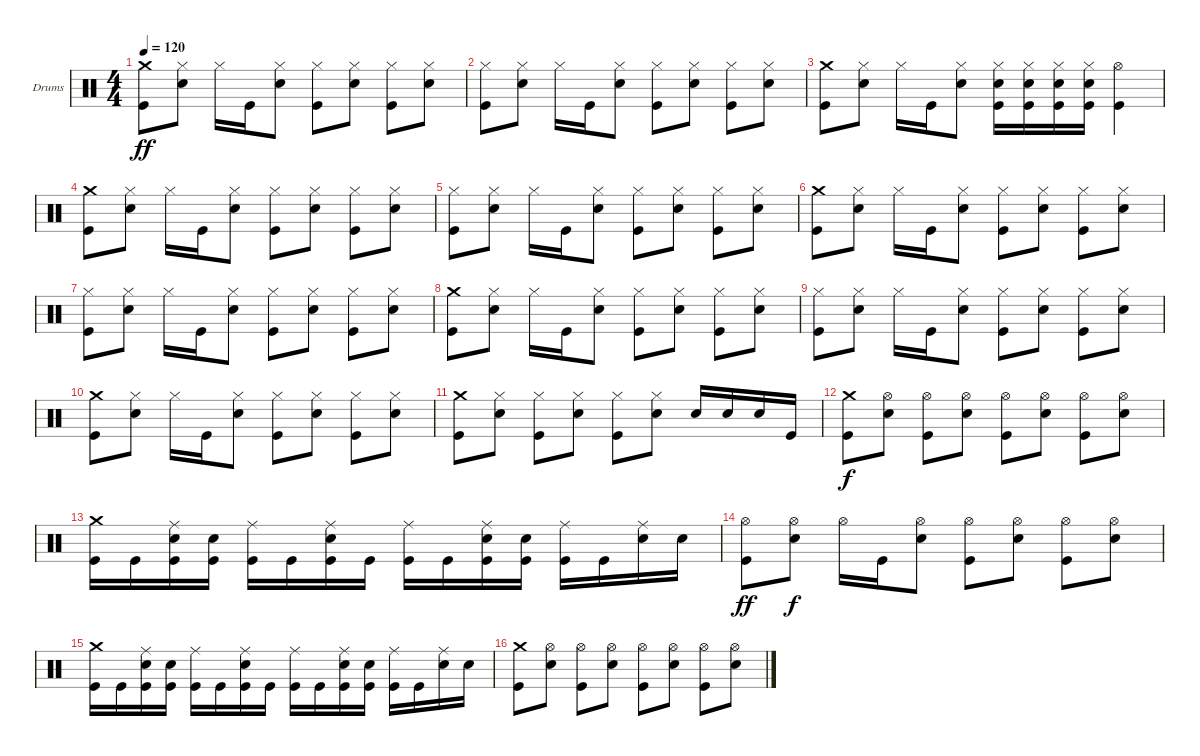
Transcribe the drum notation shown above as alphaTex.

\bracketExtendMode groupsimilarinstruments
\firstSystemTrackNameOrientation horizontal
\otherSystemsTrackNameOrientation horizontal
\track ("Drumkit" "Drums") {instrument percussion}
\staff {score}
\articulation defaults
\ts (4 4)
\tempo 120
\clef neutral
\ks c
("Kick (hit)" "Crash medium (hit)").8{dy ff} ("Snare (hit) 2" "Hi-Hat (closed)").8 "Hi-Hat (closed)".16 "Kick (hit)".16 ("Snare (hit) 2" "Hi-Hat (closed)").8 ("Kick (hit)" "Hi-Hat (closed)").8 ("Snare (hit) 2" "Hi-Hat (closed)").8 ("Kick (hit)" "Hi-Hat (closed)").8 ("Snare (hit) 2" "Hi-Hat (closed)").8 |
("Kick (hit)" "Hi-Hat (closed)").8 ("Snare (hit) 2" "Hi-Hat (closed)").8 "Hi-Hat (closed)".16 "Kick (hit)".16 ("Snare (hit) 2" "Hi-Hat (closed)").8 ("Kick (hit)" "Hi-Hat (closed)").8 ("Snare (hit) 2" "Hi-Hat (closed)").8 ("Kick (hit)" "Hi-Hat (closed)").8 ("Snare (hit) 2" "Hi-Hat (closed)").8 |
("Kick (hit)" "Crash medium (hit)").8 ("Snare (hit) 2" "Hi-Hat (closed)").8 "Hi-Hat (closed)".16 "Kick (hit)".16 ("Snare (hit) 2" "Hi-Hat (closed)").8 ("Kick (hit)" "Snare (hit) 2" "Hi-Hat (closed)").16 ("Kick (hit)" "Snare (hit) 2" "Hi-Hat (closed)").16 ("Kick (hit)" "Snare (hit) 2" "Hi-Hat (closed)").16 ("Kick (hit)" "Snare (hit) 2" "Hi-Hat (closed)").16 ("Kick (hit)" "Hi-Hat (open)").4 |
("Kick (hit)" "Crash medium (hit)").8 ("Snare (hit) 2" "Hi-Hat (closed)").8 "Hi-Hat (closed)".16 "Kick (hit)".16 ("Snare (hit) 2" "Hi-Hat (closed)").8 ("Kick (hit)" "Hi-Hat (closed)").8 ("Snare (hit) 2" "Hi-Hat (closed)").8 ("Kick (hit)" "Hi-Hat (closed)").8 ("Snare (hit) 2" "Hi-Hat (closed)").8 |
("Kick (hit)" "Hi-Hat (closed)").8 ("Snare (hit) 2" "Hi-Hat (closed)").8 "Hi-Hat (closed)".16 "Kick (hit)".16 ("Snare (hit) 2" "Hi-Hat (closed)").8 ("Kick (hit)" "Hi-Hat (closed)").8 ("Snare (hit) 2" "Hi-Hat (closed)").8 ("Kick (hit)" "Hi-Hat (closed)").8 ("Snare (hit) 2" "Hi-Hat (closed)").8 |
("Kick (hit)" "Crash medium (hit)").8 ("Snare (hit) 2" "Hi-Hat (closed)").8 "Hi-Hat (closed)".16 "Kick (hit)".16 ("Snare (hit) 2" "Hi-Hat (closed)").8 ("Kick (hit)" "Hi-Hat (closed)").8 ("Snare (hit) 2" "Hi-Hat (closed)").8 ("Kick (hit)" "Hi-Hat (closed)").8 ("Snare (hit) 2" "Hi-Hat (closed)").8 |
("Kick (hit)" "Hi-Hat (closed)").8 ("Snare (hit) 2" "Hi-Hat (closed)").8 "Hi-Hat (closed)".16 "Kick (hit)".16 ("Snare (hit) 2" "Hi-Hat (closed)").8 ("Kick (hit)" "Hi-Hat (closed)").8 ("Snare (hit) 2" "Hi-Hat (closed)").8 ("Kick (hit)" "Hi-Hat (closed)").8 ("Snare (hit) 2" "Hi-Hat (closed)").8 |
("Kick (hit)" "Crash medium (hit)").8 ("Snare (hit) 2" "Hi-Hat (closed)").8 "Hi-Hat (closed)".16 "Kick (hit)".16 ("Snare (hit) 2" "Hi-Hat (closed)").8 ("Kick (hit)" "Hi-Hat (closed)").8 ("Snare (hit) 2" "Hi-Hat (closed)").8 ("Kick (hit)" "Hi-Hat (closed)").8 ("Snare (hit) 2" "Hi-Hat (closed)").8 |
("Kick (hit)" "Hi-Hat (closed)").8 ("Snare (hit) 2" "Hi-Hat (closed)").8 "Hi-Hat (closed)".16 "Kick (hit)".16 ("Snare (hit) 2" "Hi-Hat (closed)").8 ("Kick (hit)" "Hi-Hat (closed)").8 ("Snare (hit) 2" "Hi-Hat (closed)").8 ("Kick (hit)" "Hi-Hat (closed)").8 ("Snare (hit) 2" "Hi-Hat (closed)").8 |
("Kick (hit)" "Crash medium (hit)").8 ("Snare (hit) 2" "Hi-Hat (closed)").8 "Hi-Hat (closed)".16 "Kick (hit)".16 ("Snare (hit) 2" "Hi-Hat (closed)").8 ("Kick (hit)" "Hi-Hat (closed)").8 ("Snare (hit) 2" "Hi-Hat (closed)").8 ("Kick (hit)" "Hi-Hat (closed)").8 ("Snare (hit) 2" "Hi-Hat (closed)").8 |
("Kick (hit)" "Crash medium (hit)").8 ("Snare (hit) 2" "Hi-Hat (closed)").8 ("Kick (hit)" "Hi-Hat (closed)").8 ("Snare (hit) 2" "Hi-Hat (closed)").8 ("Kick (hit)" "Hi-Hat (closed)").8 ("Snare (hit) 2" "Hi-Hat (closed)").8 "Snare (hit) 2".16 "Snare (hit) 2".16 "Snare (hit) 2".16 "Kick (hit)".16 |
("Kick (hit)" "Crash medium (hit)").8{dy f} ("Snare (hit) 2" "Hi-Hat (open)").8 ("Kick (hit)" "Hi-Hat (open)").8 ("Snare (hit) 2" "Hi-Hat (open)").8 ("Kick (hit)" "Hi-Hat (open)").8 ("Snare (hit) 2" "Hi-Hat (open)").8 ("Kick (hit)" "Hi-Hat (open)").8 ("Snare (hit) 2" "Hi-Hat (open)").8 |
("Crash medium (hit)" "Kick (hit)").16 "Kick (hit)".16 ("Ride (middle)" "Kick (hit)" "Snare (hit) 2").16 ("Kick (hit)" "Snare (hit) 2").16 ("Ride (middle)" "Kick (hit)").16 "Kick (hit)".16 ("Snare (hit) 2" "Ride (middle)" "Kick (hit)").16 "Kick (hit)".16 ("Ride (middle)" "Kick (hit)").16 "Kick (hit)".16 ("Snare (hit) 2" "Ride (middle)" "Kick (hit)").16 ("Kick (hit)" "Snare (hit) 2").16 ("Ride (middle)" "Kick (hit)").16 "Kick (hit)".16 ("Snare (hit) 2" "Ride (middle)").16 "Snare (hit) 2".16 |
("Kick (hit)" "Hi-Hat (open)").8{dy ff} ("Snare (hit) 2" "Hi-Hat (open)").8{dy f} "Hi-Hat (open)".16 "Kick (hit)".16 ("Snare (hit) 2" "Hi-Hat (open)").8 ("Kick (hit)" "Hi-Hat (open)").8 ("Snare (hit) 2" "Hi-Hat (open)").8 ("Kick (hit)" "Hi-Hat (open)").8 ("Snare (hit) 2" "Hi-Hat (open)").8 |
("Crash medium (hit)" "Kick (hit)").16 "Kick (hit)".16 ("Ride (middle)" "Kick (hit)" "Snare (hit) 2").16 ("Kick (hit)" "Snare (hit) 2").16 ("Ride (middle)" "Kick (hit)").16 "Kick (hit)".16 ("Snare (hit) 2" "Ride (middle)" "Kick (hit)").16 "Kick (hit)".16 ("Ride (middle)" "Kick (hit)").16 "Kick (hit)".16 ("Snare (hit) 2" "Ride (middle)" "Kick (hit)").16 ("Kick (hit)" "Snare (hit) 2").16 ("Ride (middle)" "Kick (hit)").16 "Kick (hit)".16 ("Snare (hit) 2" "Ride (middle)").16 "Snare (hit) 2".16 |
("Kick (hit)" "Crash medium (hit)").8 ("Snare (hit) 2" "Hi-Hat (open)").8 ("Kick (hit)" "Hi-Hat (open)").8 ("Snare (hit) 2" "Hi-Hat (open)").8 ("Kick (hit)" "Hi-Hat (open)").8 ("Snare (hit) 2" "Hi-Hat (open)").8 ("Kick (hit)" "Hi-Hat (open)").8 ("Snare (hit) 2" "Hi-Hat (open)").8
